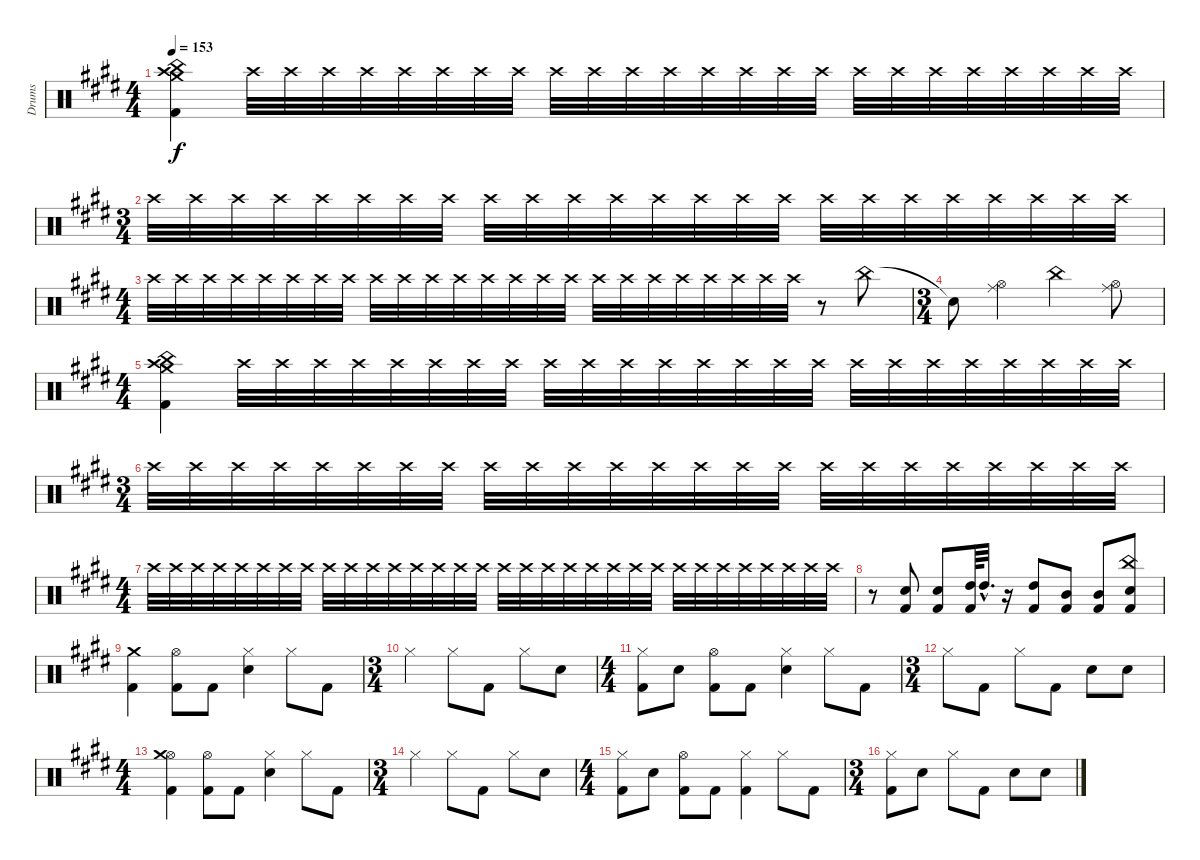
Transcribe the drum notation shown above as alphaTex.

\track ("Drums" "Drums") {instrument percussion}
\staff {score}
\articulation defaults
\ts (4 4)
\tempo 153
\clef neutral
\ks e
("Kick (hit) 2" "China (hit)" "Crash high (hit)" "Crash medium (hit)").4{dy f} "Crash high (hit)".32{volume 4} "Crash high (hit)".32{volume 13} "Crash high (hit)".32 "Crash high (hit)".32 "Crash high (hit)".32 "Crash high (hit)".32 "Crash high (hit)".32 "Crash high (hit)".32 "Crash high (hit)".32 "Crash high (hit)".32 "Crash high (hit)".32 "Crash high (hit)".32 "Crash high (hit)".32 "Crash high (hit)".32 "Crash high (hit)".32 "Crash high (hit)".32 "Crash high (hit)".32 "Crash high (hit)".32 "Crash high (hit)".32 "Crash high (hit)".32 "Crash high (hit)".32 "Crash high (hit)".32 "Crash high (hit)".32 "Crash high (hit)".32 |
\ts (3 4)
"Crash high (hit)".32 "Crash high (hit)".32 "Crash high (hit)".32 "Crash high (hit)".32 "Crash high (hit)".32 "Crash high (hit)".32 "Crash high (hit)".32 "Crash high (hit)".32 "Crash high (hit)".32 "Crash high (hit)".32 "Crash high (hit)".32 "Crash high (hit)".32 "Crash high (hit)".32 "Crash high (hit)".32 "Crash high (hit)".32 "Crash high (hit)".32 "Crash high (hit)".32 "Crash high (hit)".32 "Crash high (hit)".32 "Crash high (hit)".32 "Crash high (hit)".32 "Crash high (hit)".32 "Crash high (hit)".32 "Crash high (hit)".32 |
\ts (4 4)
"Crash high (hit)".32 "Crash high (hit)".32 "Crash high (hit)".32 "Crash high (hit)".32 "Crash high (hit)".32 "Crash high (hit)".32 "Crash high (hit)".32 "Crash high (hit)".32 "Crash high (hit)".32 "Crash high (hit)".32 "Crash high (hit)".32 "Crash high (hit)".32 "Crash high (hit)".32 "Crash high (hit)".32 "Crash high (hit)".32 "Crash high (hit)".32 "Crash high (hit)".32 "Crash high (hit)".32 "Crash high (hit)".32 "Crash high (hit)".32 "Crash high (hit)".32 "Crash high (hit)".32 "Crash high (hit)".32 "Crash high (hit)".32 r.8 "China (hit)".8{volume 14} |
\ts (3 4)
"Snare (hit)"{t}.8 ("Ride (middle)" "Hi-Hat (open)").4 "China (hit)".4 ("Ride (middle)" "Hi-Hat (open)").8 |
\ts (4 4)
("Kick (hit) 2" "Crash high (hit)" "China (hit)" "Crash medium (hit)").4 "Crash high (hit)".32{volume 7} "Crash high (hit)".32{volume 13} "Crash high (hit)".32 "Crash high (hit)".32 "Crash high (hit)".32 "Crash high (hit)".32 "Crash high (hit)".32 "Crash high (hit)".32 "Crash high (hit)".32 "Crash high (hit)".32 "Crash high (hit)".32 "Crash high (hit)".32 "Crash high (hit)".32 "Crash high (hit)".32 "Crash high (hit)".32 "Crash high (hit)".32 "Crash high (hit)".32 "Crash high (hit)".32 "Crash high (hit)".32 "Crash high (hit)".32 "Crash high (hit)".32 "Crash high (hit)".32 "Crash high (hit)".32 "Crash high (hit)".32 |
\ts (3 4)
"Crash high (hit)".32 "Crash high (hit)".32 "Crash high (hit)".32 "Crash high (hit)".32 "Crash high (hit)".32 "Crash high (hit)".32 "Crash high (hit)".32 "Crash high (hit)".32 "Crash high (hit)".32 "Crash high (hit)".32 "Crash high (hit)".32 "Crash high (hit)".32 "Crash high (hit)".32 "Crash high (hit)".32 "Crash high (hit)".32 "Crash high (hit)".32 "Crash high (hit)".32 "Crash high (hit)".32 "Crash high (hit)".32 "Crash high (hit)".32 "Crash high (hit)".32 "Crash high (hit)".32 "Crash high (hit)".32 "Crash high (hit)".32 |
\ts (4 4)
"Crash high (hit)".32 "Crash high (hit)".32 "Crash high (hit)".32 "Crash high (hit)".32 "Crash high (hit)".32 "Crash high (hit)".32 "Crash high (hit)".32 "Crash high (hit)".32 "Crash high (hit)".32 "Crash high (hit)".32 "Crash high (hit)".32 "Crash high (hit)".32 "Crash high (hit)".32 "Crash high (hit)".32 "Crash high (hit)".32 "Crash high (hit)".32 "Crash high (hit)".32 "Crash high (hit)".32 "Crash high (hit)".32 "Crash high (hit)".32 "Crash high (hit)".32 "Crash high (hit)".32 "Crash high (hit)".32 "Crash high (hit)".32 "Crash high (hit)".32 "Crash high (hit)".32 "Crash high (hit)".32 "Crash high (hit)".32 "Crash high (hit)".32 "Crash high (hit)".32 "Crash high (hit)".32 "Crash high (hit)".32 |
r.8{volume 14} ("Electric Snare (hit)" "Kick (hit) 2").8 ("Electric Snare (hit)" "Kick (hit) 2").8 ("High Tom (hit)" "Kick (hit) 2").64 "High Tom (hit)"{hac}.32{d} r.16 ("High Tom (hit)" "Kick (hit) 2").8 ("Mid Tom (hit)" "Kick (hit) 2").8 ("Mid Tom (hit)" "Kick (hit) 2").8 ("Electric Snare (hit)" "Kick (hit) 2" "China (hit)").8 |
("Kick (hit) 2" "Crash medium (hit)").4 ("Hi-Hat (open)" "Kick (hit) 2").8 "Kick (hit) 2".8 ("Electric Snare (hit)" "Hi-Hat (closed)").4 "Hi-Hat (closed)".8 "Kick (hit) 2".8 |
\ts (3 4)
"Hi-Hat (closed)".4 "Hi-Hat (closed)".8 "Kick (hit) 2".8 "Hi-Hat (closed)".8 "Electric Snare (hit)".8 |
\ts (4 4)
("Kick (hit) 2" "Hi-Hat (closed)").8 "Electric Snare (hit)".8 ("Hi-Hat (open)" "Kick (hit) 2").8 "Kick (hit) 2".8 ("Electric Snare (hit)" "Hi-Hat (closed)").4 "Hi-Hat (closed)".8 "Kick (hit) 2".8 |
\ts (3 4)
"Hi-Hat (closed)".8 "Kick (hit) 2".8 "Hi-Hat (closed)".8 "Kick (hit) 2".8 "Electric Snare (hit)".8 "Electric Snare (hit)".8 |
\ts (4 4)
("Hi-Hat (open)" "Crash medium (hit)" "Kick (hit) 2").4 ("Hi-Hat (open)" "Kick (hit) 2").8 "Kick (hit) 2".8 ("Electric Snare (hit)" "Hi-Hat (closed)").4 "Hi-Hat (closed)".8 "Kick (hit) 2".8 |
\ts (3 4)
"Hi-Hat (closed)".4 "Hi-Hat (closed)".8 "Kick (hit) 2".8 "Hi-Hat (closed)".8 "Electric Snare (hit)".8 |
\ts (4 4)
("Kick (hit) 2" "Hi-Hat (closed)").8 "Electric Snare (hit)".8 ("Kick (hit) 2" "Hi-Hat (open)").8 "Kick (hit) 2".8 ("Hi-Hat (closed)" "Kick (hit) 2").4 "Hi-Hat (closed)".8 "Kick (hit) 2".8 |
\ts (3 4)
("Kick (hit) 2" "Hi-Hat (closed)").8 "Electric Snare (hit)".8 "Hi-Hat (closed)".8 "Kick (hit) 2".8 "Electric Snare (hit)".8 "Electric Snare (hit)".8
